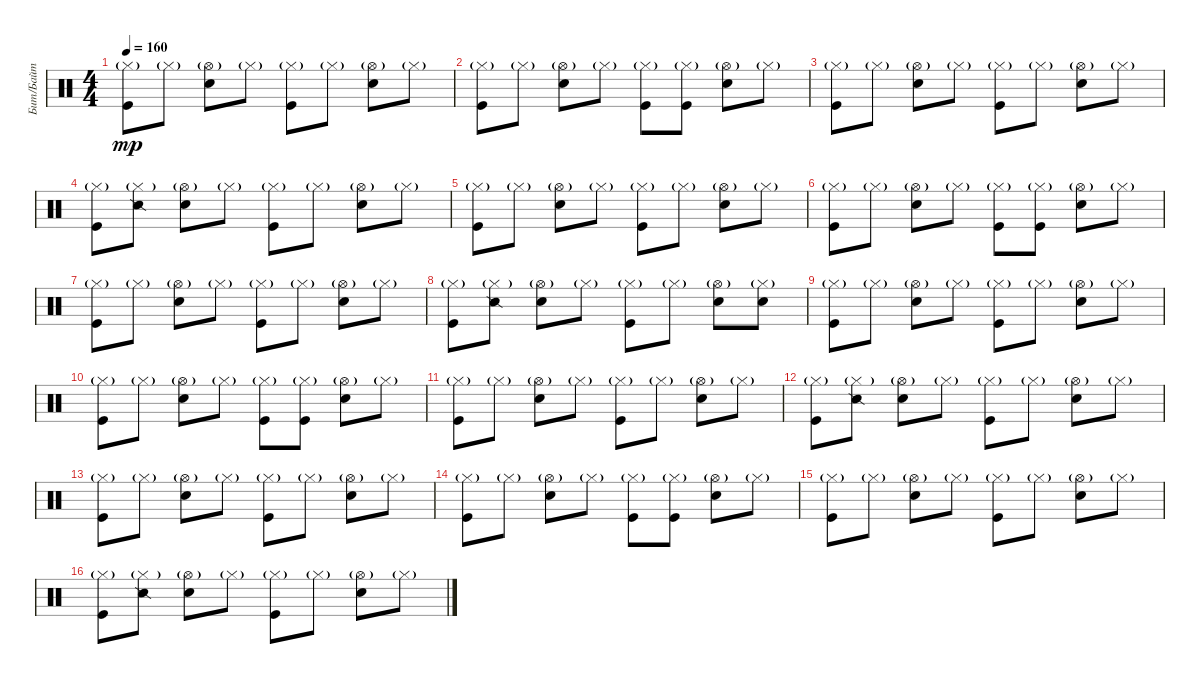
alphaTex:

\track ("Бит/Байт" "Бит/Байт") {instrument percussion}
\staff {score}
\articulation defaults
\ts (4 4)
\tempo 160
\clef neutral
\ks c
("Hi-Hat (closed)"{g} "Kick (hit)").8{dy mp} "Hi-Hat (closed)"{g}.8 ("Hi-Hat (open)"{g} "Snare (hit) 2").8 "Hi-Hat (closed)"{g}.8 ("Hi-Hat (closed)"{g} "Kick (hit)").8 "Hi-Hat (closed)"{g}.8 ("Hi-Hat (open)"{g} "Snare (hit) 2").8 "Hi-Hat (closed)"{g}.8 |
("Hi-Hat (closed)"{g} "Kick (hit)").8 "Hi-Hat (closed)"{g}.8 ("Hi-Hat (open)"{g} "Snare (hit) 2").8 "Hi-Hat (closed)"{g}.8 ("Hi-Hat (closed)"{g} "Kick (hit)").8 ("Hi-Hat (closed)"{g} "Kick (hit)").8 ("Hi-Hat (open)"{g} "Snare (hit) 2").8 "Hi-Hat (closed)"{g}.8 |
("Hi-Hat (closed)"{g} "Kick (hit)").8 "Hi-Hat (closed)"{g}.8 ("Hi-Hat (open)"{g} "Snare (hit) 2").8 "Hi-Hat (closed)"{g}.8 ("Hi-Hat (closed)"{g} "Kick (hit)").8 "Hi-Hat (closed)"{g}.8 ("Hi-Hat (open)"{g} "Snare (hit) 2").8 "Hi-Hat (closed)"{g}.8 |
("Hi-Hat (closed)"{g} "Kick (hit)").8 ("Hi-Hat (closed)"{g} "Snare (side stick) 2").8 ("Hi-Hat (open)"{g} "Snare (hit) 2").8 "Hi-Hat (closed)"{g}.8 ("Hi-Hat (closed)"{g} "Kick (hit)").8 "Hi-Hat (closed)"{g}.8 ("Hi-Hat (open)"{g} "Snare (hit) 2").8 "Hi-Hat (closed)"{g}.8 |
("Hi-Hat (closed)"{g} "Kick (hit)").8 "Hi-Hat (closed)"{g}.8 ("Hi-Hat (open)"{g} "Snare (hit) 2").8 "Hi-Hat (closed)"{g}.8 ("Hi-Hat (closed)"{g} "Kick (hit)").8 "Hi-Hat (closed)"{g}.8 ("Hi-Hat (open)"{g} "Snare (hit) 2").8 "Hi-Hat (closed)"{g}.8 |
("Hi-Hat (closed)"{g} "Kick (hit)").8 "Hi-Hat (closed)"{g}.8 ("Hi-Hat (open)"{g} "Snare (hit) 2").8 "Hi-Hat (closed)"{g}.8 ("Hi-Hat (closed)"{g} "Kick (hit)").8 ("Hi-Hat (closed)"{g} "Kick (hit)").8 ("Hi-Hat (open)"{g} "Snare (hit) 2").8 "Hi-Hat (closed)"{g}.8 |
("Hi-Hat (closed)"{g} "Kick (hit)").8 "Hi-Hat (closed)"{g}.8 ("Hi-Hat (open)"{g} "Snare (hit) 2").8 "Hi-Hat (closed)"{g}.8 ("Hi-Hat (closed)"{g} "Kick (hit)").8 "Hi-Hat (closed)"{g}.8 ("Hi-Hat (open)"{g} "Snare (hit) 2").8 "Hi-Hat (closed)"{g}.8 |
("Hi-Hat (closed)"{g} "Kick (hit)").8 ("Hi-Hat (closed)"{g} "Snare (side stick) 2").8 ("Hi-Hat (open)"{g} "Snare (hit) 2").8 "Hi-Hat (closed)"{g}.8 ("Hi-Hat (closed)"{g} "Kick (hit)").8 "Hi-Hat (closed)"{g}.8 ("Hi-Hat (open)"{g} "Snare (hit) 2").8 ("Hi-Hat (closed)"{g} "Snare (hit) 2").8 |
("Hi-Hat (closed)"{g} "Kick (hit)").8 "Hi-Hat (closed)"{g}.8 ("Hi-Hat (open)"{g} "Snare (hit) 2").8 "Hi-Hat (closed)"{g}.8 ("Hi-Hat (closed)"{g} "Kick (hit)").8 "Hi-Hat (closed)"{g}.8 ("Hi-Hat (open)"{g} "Snare (hit) 2").8 "Hi-Hat (closed)"{g}.8 |
("Hi-Hat (closed)"{g} "Kick (hit)").8 "Hi-Hat (closed)"{g}.8 ("Hi-Hat (open)"{g} "Snare (hit) 2").8 "Hi-Hat (closed)"{g}.8 ("Hi-Hat (closed)"{g} "Kick (hit)").8 ("Hi-Hat (closed)"{g} "Kick (hit)").8 ("Hi-Hat (open)"{g} "Snare (hit) 2").8 "Hi-Hat (closed)"{g}.8 |
("Hi-Hat (closed)"{g} "Kick (hit)").8 "Hi-Hat (closed)"{g}.8 ("Hi-Hat (open)"{g} "Snare (hit) 2").8 "Hi-Hat (closed)"{g}.8 ("Hi-Hat (closed)"{g} "Kick (hit)").8 "Hi-Hat (closed)"{g}.8 ("Hi-Hat (open)"{g} "Snare (hit) 2").8 "Hi-Hat (closed)"{g}.8 |
("Hi-Hat (closed)"{g} "Kick (hit)").8 ("Hi-Hat (closed)"{g} "Snare (side stick) 2").8 ("Hi-Hat (open)"{g} "Snare (hit) 2").8 "Hi-Hat (closed)"{g}.8 ("Hi-Hat (closed)"{g} "Kick (hit)").8 "Hi-Hat (closed)"{g}.8 ("Hi-Hat (open)"{g} "Snare (hit) 2").8 "Hi-Hat (closed)"{g}.8 |
("Hi-Hat (closed)"{g} "Kick (hit)").8 "Hi-Hat (closed)"{g}.8 ("Hi-Hat (open)"{g} "Snare (hit) 2").8 "Hi-Hat (closed)"{g}.8 ("Hi-Hat (closed)"{g} "Kick (hit)").8 "Hi-Hat (closed)"{g}.8 ("Hi-Hat (open)"{g} "Snare (hit) 2").8 "Hi-Hat (closed)"{g}.8 |
("Hi-Hat (closed)"{g} "Kick (hit)").8 "Hi-Hat (closed)"{g}.8 ("Hi-Hat (open)"{g} "Snare (hit) 2").8 "Hi-Hat (closed)"{g}.8 ("Hi-Hat (closed)"{g} "Kick (hit)").8 ("Hi-Hat (closed)"{g} "Kick (hit)").8 ("Hi-Hat (open)"{g} "Snare (hit) 2").8 "Hi-Hat (closed)"{g}.8 |
("Hi-Hat (closed)"{g} "Kick (hit)").8 "Hi-Hat (closed)"{g}.8 ("Hi-Hat (open)"{g} "Snare (hit) 2").8 "Hi-Hat (closed)"{g}.8 ("Hi-Hat (closed)"{g} "Kick (hit)").8 "Hi-Hat (closed)"{g}.8 ("Hi-Hat (open)"{g} "Snare (hit) 2").8 "Hi-Hat (closed)"{g}.8 |
("Hi-Hat (closed)"{g} "Kick (hit)").8 ("Hi-Hat (closed)"{g} "Snare (side stick) 2").8 ("Hi-Hat (open)"{g} "Snare (hit) 2").8 "Hi-Hat (closed)"{g}.8 ("Hi-Hat (closed)"{g} "Kick (hit)").8 "Hi-Hat (closed)"{g}.8 ("Hi-Hat (open)"{g} "Snare (hit) 2").8 "Hi-Hat (closed)"{g}.8
